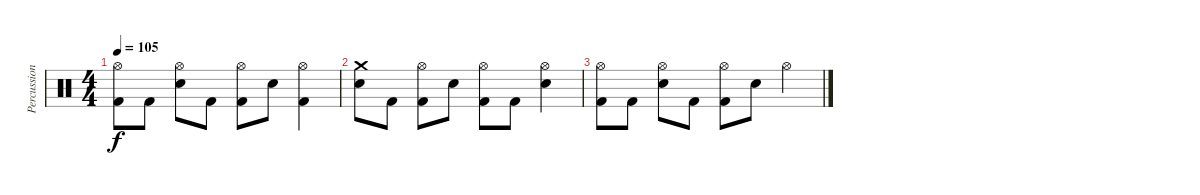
\track ("Percussion" "Percussion") {instrument percussion}
\staff {score}
\articulation defaults
\ts (4 4)
\tempo 105
\clef neutral
\ks c
("Hi-Hat (open)" "Kick (hit) 2").8{dy f} "Kick (hit) 2".8 ("Hi-Hat (open)" "Snare (hit) 2").8 "Kick (hit) 2".8 ("Hi-Hat (open)" "Kick (hit) 2").8 "Snare (hit) 2".8 ("Hi-Hat (open)" "Kick (hit) 2").4 |
("Crash medium (hit)" "Snare (hit) 2").8 "Kick (hit) 2".8 ("Hi-Hat (open)" "Kick (hit) 2").8 "Snare (hit) 2".8 ("Hi-Hat (open)" "Kick (hit) 2").8 "Kick (hit) 2".8 ("Hi-Hat (open)" "Snare (hit) 2").4 |
("Hi-Hat (open)" "Kick (hit) 2").8 "Kick (hit) 2".8 ("Hi-Hat (open)" "Snare (hit) 2").8 "Kick (hit) 2".8 ("Hi-Hat (open)" "Kick (hit) 2").8 "Snare (hit) 2".8 "Hi-Hat (open)".4
